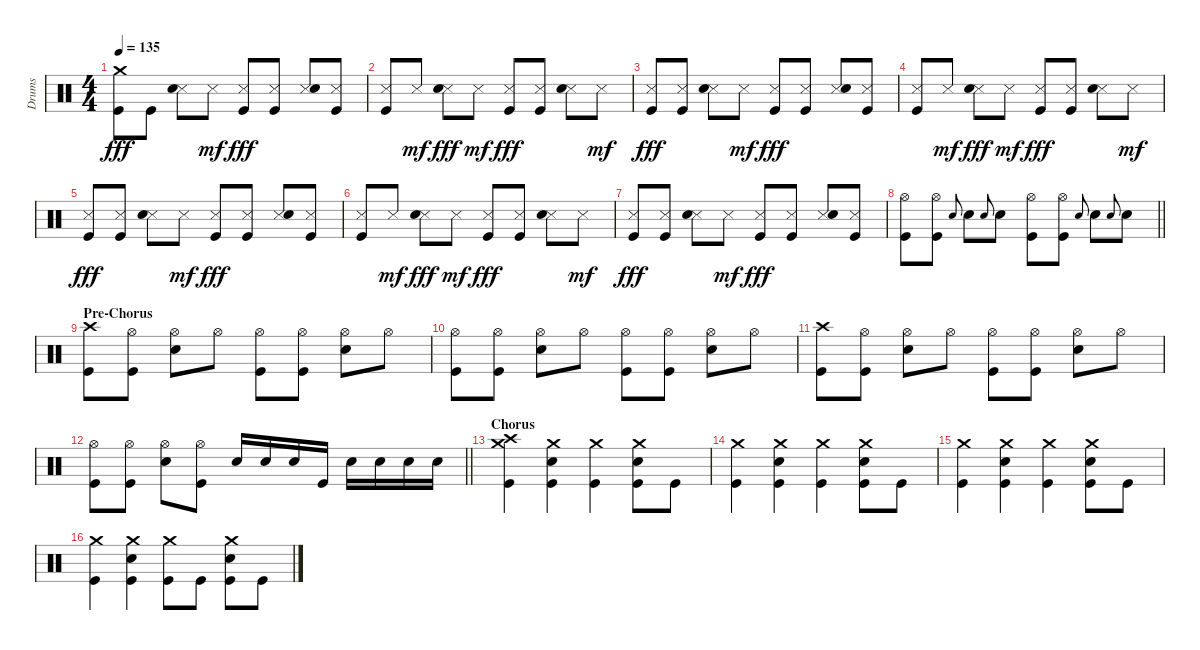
\track ("Drums" "Drums") {instrument percussion}
\staff {score}
\articulation defaults
\ts (4 4)
\tempo 135
\clef neutral
\ks c
("Crash medium (hit)" "Kick (hit)").8{dy fff} "Kick (hit)".8 ("Snare (side stick) 3" "Snare (hit) 2").8 "Snare (side stick) 3".8{dy mf} ("Snare (side stick) 3" "Kick (hit)").8{dy fff} ("Snare (side stick) 3" "Kick (hit)").8 ("Snare (side stick) 3" "Snare (hit) 2").8 ("Snare (side stick) 3" "Kick (hit)").8 |
("Snare (side stick) 3" "Kick (hit)").8 "Snare (side stick) 3".8{dy mf} ("Snare (side stick) 3" "Snare (hit) 2").8{dy fff} "Snare (side stick) 3".8{dy mf} ("Snare (side stick) 3" "Kick (hit)").8{dy fff} ("Snare (side stick) 3" "Kick (hit)").8 ("Snare (side stick) 3" "Snare (hit) 2").8 "Snare (side stick) 3".8{dy mf} |
("Snare (side stick) 3" "Kick (hit)").8{dy fff} ("Snare (side stick) 3" "Kick (hit)").8 ("Snare (side stick) 3" "Snare (hit) 2").8 "Snare (side stick) 3".8{dy mf} ("Snare (side stick) 3" "Kick (hit)").8{dy fff} ("Snare (side stick) 3" "Kick (hit)").8 ("Snare (side stick) 3" "Snare (hit) 2").8 ("Snare (side stick) 3" "Kick (hit)").8 |
("Snare (side stick) 3" "Kick (hit)").8 "Snare (side stick) 3".8{dy mf} ("Snare (side stick) 3" "Snare (hit) 2").8{dy fff} "Snare (side stick) 3".8{dy mf} ("Snare (side stick) 3" "Kick (hit)").8{dy fff} ("Snare (side stick) 3" "Kick (hit)").8 ("Snare (side stick) 3" "Snare (hit) 2").8 "Snare (side stick) 3".8{dy mf} |
("Snare (side stick) 3" "Kick (hit)").8{dy fff} ("Snare (side stick) 3" "Kick (hit)").8 ("Snare (side stick) 3" "Snare (hit) 2").8 "Snare (side stick) 3".8{dy mf} ("Snare (side stick) 3" "Kick (hit)").8{dy fff} ("Snare (side stick) 3" "Kick (hit)").8 ("Snare (side stick) 3" "Snare (hit) 2").8 ("Snare (side stick) 3" "Kick (hit)").8 |
("Snare (side stick) 3" "Kick (hit)").8 "Snare (side stick) 3".8{dy mf} ("Snare (side stick) 3" "Snare (hit) 2").8{dy fff} "Snare (side stick) 3".8{dy mf} ("Snare (side stick) 3" "Kick (hit)").8{dy fff} ("Snare (side stick) 3" "Kick (hit)").8 ("Snare (side stick) 3" "Snare (hit) 2").8 "Snare (side stick) 3".8{dy mf} |
("Snare (side stick) 3" "Kick (hit)").8{dy fff} ("Snare (side stick) 3" "Kick (hit)").8 ("Snare (side stick) 3" "Snare (hit) 2").8 "Snare (side stick) 3".8{dy mf} ("Snare (side stick) 3" "Kick (hit)").8{dy fff} ("Snare (side stick) 3" "Kick (hit)").8 ("Snare (side stick) 3" "Snare (hit) 2").8 ("Snare (side stick) 3" "Kick (hit)").8 |
\barLineRight lightlight
("Hi-Hat (open)" "Kick (hit)").8 ("Hi-Hat (open)" "Kick (hit)").8 "Snare (hit) 2".8{gr onbeat} "Snare (hit) 2".8 "Snare (hit) 2".8{gr onbeat} "Snare (hit) 2".8 ("Hi-Hat (open)" "Kick (hit)").8 ("Hi-Hat (open)" "Kick (hit)").8 "Snare (hit) 2".8{gr onbeat} "Snare (hit) 2".8 "Snare (hit) 2".8{gr onbeat} "Snare (hit) 2".8 |
\section ("" "Pre-Chorus")
("Crash high (hit)" "Kick (hit)").8 ("Hi-Hat (open)" "Kick (hit)").8 ("Hi-Hat (open)" "Snare (hit) 2").8 "Hi-Hat (open)".8 ("Hi-Hat (open)" "Kick (hit)").8 ("Hi-Hat (open)" "Kick (hit)").8 ("Hi-Hat (open)" "Snare (hit) 2").8 "Hi-Hat (open)".8 |
("Hi-Hat (open)" "Kick (hit)").8 ("Hi-Hat (open)" "Kick (hit)").8 ("Hi-Hat (open)" "Snare (hit) 2").8 "Hi-Hat (open)".8 ("Hi-Hat (open)" "Kick (hit)").8 ("Hi-Hat (open)" "Kick (hit)").8 ("Hi-Hat (open)" "Snare (hit) 2").8 "Hi-Hat (open)".8 |
("Crash high (hit)" "Kick (hit)").8 ("Hi-Hat (open)" "Kick (hit)").8 ("Hi-Hat (open)" "Snare (hit) 2").8 "Hi-Hat (open)".8 ("Hi-Hat (open)" "Kick (hit)").8 ("Hi-Hat (open)" "Kick (hit)").8 ("Hi-Hat (open)" "Snare (hit) 2").8 "Hi-Hat (open)".8 |
\barLineRight lightlight
("Hi-Hat (open)" "Kick (hit)").8 ("Hi-Hat (open)" "Kick (hit)").8 ("Hi-Hat (open)" "Snare (hit) 2").8 ("Hi-Hat (open)" "Kick (hit)").8 "Snare (hit) 2".16 "Snare (hit) 2".16 "Snare (hit) 2".16 "Kick (hit)".16 "Snare (hit) 2".16 "Snare (hit) 2".16 "Snare (hit) 2".16 "Snare (hit) 2".16 |
\section ("" "Chorus")
("Crash medium (hit)" "Crash high (hit)" "Kick (hit)").4 ("Crash medium (hit)" "Snare (hit) 2" "Kick (hit)").4 ("Crash medium (hit)" "Kick (hit)").4 ("Crash medium (hit)" "Snare (hit) 2" "Kick (hit)").8 "Kick (hit)".8 |
("Crash medium (hit)" "Kick (hit)").4 ("Crash medium (hit)" "Snare (hit) 2" "Kick (hit)").4 ("Crash medium (hit)" "Kick (hit)").4 ("Crash medium (hit)" "Snare (hit) 2" "Kick (hit)").8 "Kick (hit)".8 |
("Crash medium (hit)" "Kick (hit)").4 ("Crash medium (hit)" "Snare (hit) 2" "Kick (hit)").4 ("Crash medium (hit)" "Kick (hit)").4 ("Crash medium (hit)" "Snare (hit) 2" "Kick (hit)").8 "Kick (hit)".8 |
("Crash medium (hit)" "Kick (hit)").4 ("Crash medium (hit)" "Snare (hit) 2" "Kick (hit)").4 ("Crash medium (hit)" "Kick (hit)").8 "Kick (hit)".8 ("Crash medium (hit)" "Snare (hit) 2" "Kick (hit)").8 "Kick (hit)".8
